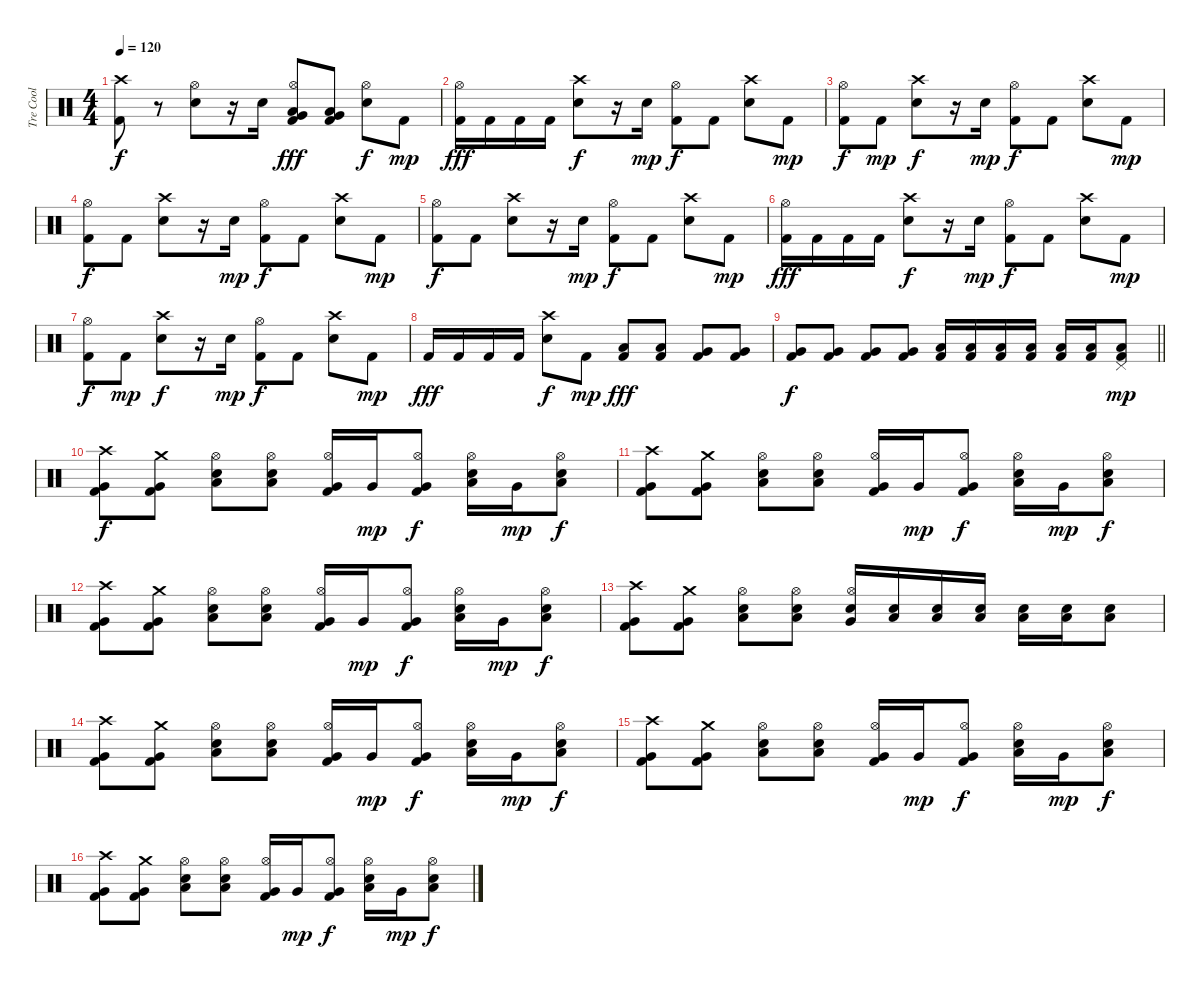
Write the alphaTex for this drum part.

\track ("Tre Cool" "Tre Cool") {instrument percussion}
\staff {score}
\articulation defaults
\ts (4 4)
\tempo 120
\clef neutral
\ks c
("Kick (hit) 2" "Crash high (hit)").8{dy f} r.8 ("Electric Snare (hit)" "Hi-Hat (open)").8 r.16 "Snare (hit) 2".16 ("Kick (hit) 2" "Very Low Tom (hit)" "Low Floor Tom (hit)" "Hi-Hat (open)").8{dy fff} ("Kick (hit) 2" "Very Low Tom (hit)" "Low Floor Tom (hit)").8 ("Electric Snare (hit)" "Hi-Hat (open)").8{dy f} "Kick (hit) 2".8{dy mp} |
("Kick (hit) 2" "Hi-Hat (open)").16{dy fff} "Kick (hit) 2".16 "Kick (hit) 2".16 "Kick (hit) 2".16 ("Electric Snare (hit)" "Crash high (hit)").8{dy f} r.16 "Snare (hit) 2".16{dy mp} ("Kick (hit) 2" "Hi-Hat (open)").8{dy f} "Kick (hit) 2".8 ("Electric Snare (hit)" "Crash high (hit)").8 "Kick (hit) 2".8{dy mp} |
("Kick (hit) 2" "Hi-Hat (open)").8{dy f} "Kick (hit) 2".8{dy mp} ("Electric Snare (hit)" "Crash high (hit)").8{dy f} r.16 "Snare (hit) 2".16{dy mp} ("Kick (hit) 2" "Hi-Hat (open)").8{dy f} "Kick (hit) 2".8 ("Electric Snare (hit)" "Crash high (hit)").8 "Kick (hit) 2".8{dy mp} |
("Kick (hit) 2" "Hi-Hat (open)").8{dy f} "Kick (hit) 2".8 ("Electric Snare (hit)" "Crash high (hit)").8 r.16 "Snare (hit) 2".16{dy mp} ("Kick (hit) 2" "Hi-Hat (open)").8{dy f} "Kick (hit) 2".8 ("Electric Snare (hit)" "Crash high (hit)").8 "Kick (hit) 2".8{dy mp} |
("Kick (hit) 2" "Hi-Hat (open)").8{dy f} "Kick (hit) 2".8 ("Electric Snare (hit)" "Crash high (hit)").8 r.16 "Snare (hit) 2".16{dy mp} ("Kick (hit) 2" "Hi-Hat (open)").8{dy f} "Kick (hit) 2".8 ("Electric Snare (hit)" "Crash high (hit)").8 "Kick (hit) 2".8{dy mp} |
("Kick (hit) 2" "Hi-Hat (open)").16{dy fff} "Kick (hit) 2".16 "Kick (hit) 2".16 "Kick (hit) 2".16 ("Electric Snare (hit)" "Crash high (hit)").8{dy f} r.16 "Snare (hit) 2".16{dy mp} ("Kick (hit) 2" "Hi-Hat (open)").8{dy f} "Kick (hit) 2".8 ("Electric Snare (hit)" "Crash high (hit)").8 "Kick (hit) 2".8{dy mp} |
("Kick (hit) 2" "Hi-Hat (open)").8{dy f} "Kick (hit) 2".8{dy mp} ("Electric Snare (hit)" "Crash high (hit)").8{dy f} r.16 "Snare (hit) 2".16{dy mp} ("Kick (hit) 2" "Hi-Hat (open)").8{dy f} "Kick (hit) 2".8 ("Electric Snare (hit)" "Crash high (hit)").8 "Kick (hit) 2".8{dy mp} |
"Kick (hit) 2".16{dy fff} "Kick (hit) 2".16 "Kick (hit) 2".16 "Kick (hit) 2".16 ("Electric Snare (hit)" "Crash high (hit)").8{dy f} "Kick (hit) 2".8{dy mp} ("Kick (hit) 2" "Low Floor Tom (hit)").8{dy fff} ("Kick (hit) 2" "Low Floor Tom (hit)").8 ("Kick (hit) 2" "Very Low Tom (hit)").8 ("Kick (hit) 2" "Very Low Tom (hit)").8 |
\barLineRight lightlight
("Kick (hit) 2" "Very Low Tom (hit)").8{dy f} ("Kick (hit) 2" "Very Low Tom (hit)").8 ("Kick (hit) 2" "Very Low Tom (hit)").8 ("Kick (hit) 2" "Very Low Tom (hit)").8 ("Kick (hit) 2" "Low Floor Tom (hit)").16 ("Kick (hit) 2" "Low Floor Tom (hit)").16 ("Kick (hit) 2" "Low Floor Tom (hit)").16 ("Kick (hit) 2" "Low Floor Tom (hit)").16 ("Kick (hit) 2" "Low Floor Tom (hit)").16 ("Kick (hit) 2" "Low Floor Tom (hit)").16 ("Kick (hit) 2" "Low Floor Tom (hit)" "Pedal Hi-Hat (hit)").8{dy mp} |
("Kick (hit) 2" "Very Low Tom (hit)" "Crash high (hit)").8{dy f} ("Kick (hit) 2" "Very Low Tom (hit)" "Crash medium (hit)").8 ("Snare (hit) 2" "Low Floor Tom (hit)" "Hi-Hat (open)").8 ("Snare (hit) 2" "Low Floor Tom (hit)" "Hi-Hat (open)").8 ("Kick (hit) 2" "Very Low Tom (hit)" "Hi-Hat (open)").16 "Very Low Tom (hit)".16{dy mp} ("Kick (hit) 2" "Very Low Tom (hit)" "Hi-Hat (open)").8{dy f} ("Snare (hit) 2" "Low Floor Tom (hit)" "Hi-Hat (open)").16 "Very Low Tom (hit)".16{dy mp} ("Snare (hit) 2" "Low Floor Tom (hit)" "Hi-Hat (open)").8{dy f} |
("Kick (hit) 2" "Very Low Tom (hit)" "Crash high (hit)").8 ("Kick (hit) 2" "Very Low Tom (hit)" "Crash medium (hit)").8 ("Snare (hit) 2" "Low Floor Tom (hit)" "Hi-Hat (open)").8 ("Snare (hit) 2" "Low Floor Tom (hit)" "Hi-Hat (open)").8 ("Kick (hit) 2" "Very Low Tom (hit)" "Hi-Hat (open)").16 "Very Low Tom (hit)".16{dy mp} ("Kick (hit) 2" "Very Low Tom (hit)" "Hi-Hat (open)").8{dy f} ("Snare (hit) 2" "Low Floor Tom (hit)" "Hi-Hat (open)").16 "Very Low Tom (hit)".16{dy mp} ("Snare (hit) 2" "Low Floor Tom (hit)" "Hi-Hat (open)").8{dy f} |
("Kick (hit) 2" "Very Low Tom (hit)" "Crash high (hit)").8 ("Kick (hit) 2" "Very Low Tom (hit)" "Crash medium (hit)").8 ("Snare (hit) 2" "Low Floor Tom (hit)" "Hi-Hat (open)").8 ("Snare (hit) 2" "Low Floor Tom (hit)" "Hi-Hat (open)").8 ("Kick (hit) 2" "Very Low Tom (hit)" "Hi-Hat (open)").16 "Very Low Tom (hit)".16{dy mp} ("Kick (hit) 2" "Very Low Tom (hit)" "Hi-Hat (open)").8{dy f} ("Snare (hit) 2" "Low Floor Tom (hit)" "Hi-Hat (open)").16 "Very Low Tom (hit)".16{dy mp} ("Snare (hit) 2" "Low Floor Tom (hit)" "Hi-Hat (open)").8{dy f} |
("Kick (hit) 2" "Very Low Tom (hit)" "Crash high (hit)").8 ("Kick (hit) 2" "Very Low Tom (hit)" "Crash medium (hit)").8 ("Snare (hit) 2" "Low Floor Tom (hit)" "Hi-Hat (open)").8 ("Snare (hit) 2" "Low Floor Tom (hit)" "Hi-Hat (open)").8 ("Electric Snare (hit)" "Very Low Tom (hit)" "Hi-Hat (open)").16 ("Electric Snare (hit)" "Low Floor Tom (hit)").16 ("Electric Snare (hit)" "Low Floor Tom (hit)").16 ("Electric Snare (hit)" "Low Floor Tom (hit)").16 ("Electric Snare (hit)" "Low Floor Tom (hit)").16 ("Electric Snare (hit)" "Low Floor Tom (hit)").16 ("Electric Snare (hit)" "Low Floor Tom (hit)").8 |
("Kick (hit) 2" "Very Low Tom (hit)" "Crash high (hit)").8 ("Kick (hit) 2" "Very Low Tom (hit)" "Crash medium (hit)").8 ("Snare (hit) 2" "Low Floor Tom (hit)" "Hi-Hat (open)").8 ("Snare (hit) 2" "Low Floor Tom (hit)" "Hi-Hat (open)").8 ("Kick (hit) 2" "Very Low Tom (hit)" "Hi-Hat (open)").16 "Very Low Tom (hit)".16{dy mp} ("Kick (hit) 2" "Very Low Tom (hit)" "Hi-Hat (open)").8{dy f} ("Snare (hit) 2" "Low Floor Tom (hit)" "Hi-Hat (open)").16 "Very Low Tom (hit)".16{dy mp} ("Snare (hit) 2" "Low Floor Tom (hit)" "Hi-Hat (open)").8{dy f} |
("Kick (hit) 2" "Very Low Tom (hit)" "Crash high (hit)").8 ("Kick (hit) 2" "Very Low Tom (hit)" "Crash medium (hit)").8 ("Snare (hit) 2" "Low Floor Tom (hit)" "Hi-Hat (open)").8 ("Snare (hit) 2" "Low Floor Tom (hit)" "Hi-Hat (open)").8 ("Kick (hit) 2" "Very Low Tom (hit)" "Hi-Hat (open)").16 "Very Low Tom (hit)".16{dy mp} ("Kick (hit) 2" "Very Low Tom (hit)" "Hi-Hat (open)").8{dy f} ("Snare (hit) 2" "Low Floor Tom (hit)" "Hi-Hat (open)").16 "Very Low Tom (hit)".16{dy mp} ("Snare (hit) 2" "Low Floor Tom (hit)" "Hi-Hat (open)").8{dy f} |
("Kick (hit) 2" "Very Low Tom (hit)" "Crash high (hit)").8 ("Kick (hit) 2" "Very Low Tom (hit)" "Crash medium (hit)").8 ("Snare (hit) 2" "Low Floor Tom (hit)" "Hi-Hat (open)").8 ("Snare (hit) 2" "Low Floor Tom (hit)" "Hi-Hat (open)").8 ("Kick (hit) 2" "Very Low Tom (hit)" "Hi-Hat (open)").16 "Very Low Tom (hit)".16{dy mp} ("Kick (hit) 2" "Very Low Tom (hit)" "Hi-Hat (open)").8{dy f} ("Snare (hit) 2" "Low Floor Tom (hit)" "Hi-Hat (open)").16 "Very Low Tom (hit)".16{dy mp} ("Snare (hit) 2" "Low Floor Tom (hit)" "Hi-Hat (open)").8{dy f}
